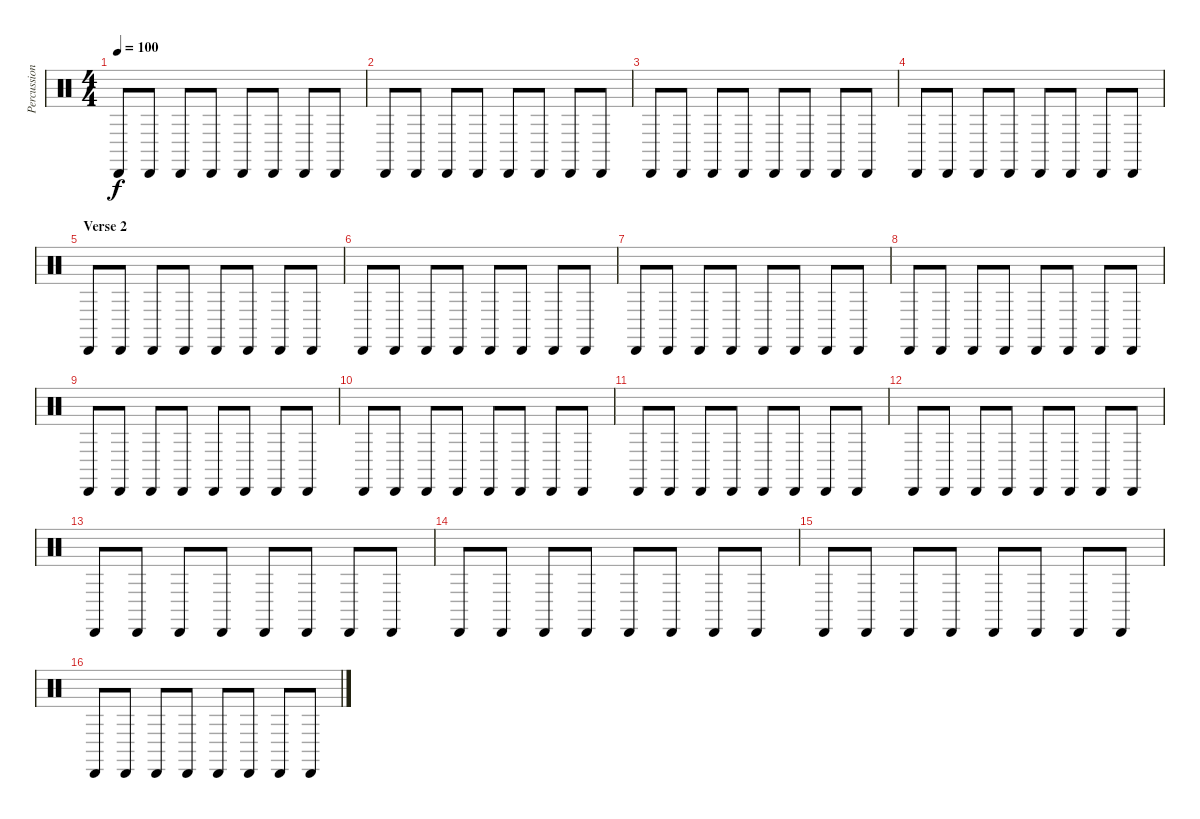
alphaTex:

\track ("Percussion" "Percussion") {instrument percussion}
\staff {score}
\articulation defaults
\ts (4 4)
\tempo 100
\clef neutral
\ks c "Cabasa (hit)".8{dy f} "Cabasa (hit)".8 "Cabasa (hit)".8 "Cabasa (hit)".8 "Cabasa (hit)".8 "Cabasa (hit)".8 "Cabasa (hit)".8 "Cabasa (hit)".8
|
"Cabasa (hit)".8 "Cabasa (hit)".8 "Cabasa (hit)".8 "Cabasa (hit)".8 "Cabasa (hit)".8 "Cabasa (hit)".8 "Cabasa (hit)".8 "Cabasa (hit)".8 |
"Cabasa (hit)".8 "Cabasa (hit)".8 "Cabasa (hit)".8 "Cabasa (hit)".8 "Cabasa (hit)".8 "Cabasa (hit)".8 "Cabasa (hit)".8 "Cabasa (hit)".8 |
"Cabasa (hit)".8 "Cabasa (hit)".8 "Cabasa (hit)".8 "Cabasa (hit)".8 "Cabasa (hit)".8 "Cabasa (hit)".8 "Cabasa (hit)".8 "Cabasa (hit)".8 |
\section ("" "Verse 2")
"Cabasa (hit)".8 "Cabasa (hit)".8 "Cabasa (hit)".8 "Cabasa (hit)".8 "Cabasa (hit)".8 "Cabasa (hit)".8 "Cabasa (hit)".8 "Cabasa (hit)".8 |
"Cabasa (hit)".8 "Cabasa (hit)".8 "Cabasa (hit)".8 "Cabasa (hit)".8 "Cabasa (hit)".8 "Cabasa (hit)".8 "Cabasa (hit)".8 "Cabasa (hit)".8 |
"Cabasa (hit)".8 "Cabasa (hit)".8 "Cabasa (hit)".8 "Cabasa (hit)".8 "Cabasa (hit)".8 "Cabasa (hit)".8 "Cabasa (hit)".8 "Cabasa (hit)".8 |
"Cabasa (hit)".8 "Cabasa (hit)".8 "Cabasa (hit)".8 "Cabasa (hit)".8 "Cabasa (hit)".8 "Cabasa (hit)".8 "Cabasa (hit)".8 "Cabasa (hit)".8 |
"Cabasa (hit)".8 "Cabasa (hit)".8 "Cabasa (hit)".8 "Cabasa (hit)".8 "Cabasa (hit)".8 "Cabasa (hit)".8 "Cabasa (hit)".8 "Cabasa (hit)".8 |
"Cabasa (hit)".8 "Cabasa (hit)".8 "Cabasa (hit)".8 "Cabasa (hit)".8 "Cabasa (hit)".8 "Cabasa (hit)".8 "Cabasa (hit)".8 "Cabasa (hit)".8 |
"Cabasa (hit)".8 "Cabasa (hit)".8 "Cabasa (hit)".8 "Cabasa (hit)".8 "Cabasa (hit)".8 "Cabasa (hit)".8 "Cabasa (hit)".8 "Cabasa (hit)".8 |
"Cabasa (hit)".8 "Cabasa (hit)".8 "Cabasa (hit)".8 "Cabasa (hit)".8 "Cabasa (hit)".8 "Cabasa (hit)".8 "Cabasa (hit)".8 "Cabasa (hit)".8 |
"Cabasa (hit)".8 "Cabasa (hit)".8 "Cabasa (hit)".8 "Cabasa (hit)".8 "Cabasa (hit)".8 "Cabasa (hit)".8 "Cabasa (hit)".8 "Cabasa (hit)".8 |
"Cabasa (hit)".8 "Cabasa (hit)".8 "Cabasa (hit)".8 "Cabasa (hit)".8 "Cabasa (hit)".8 "Cabasa (hit)".8 "Cabasa (hit)".8 "Cabasa (hit)".8 |
"Cabasa (hit)".8 "Cabasa (hit)".8 "Cabasa (hit)".8 "Cabasa (hit)".8 "Cabasa (hit)".8 "Cabasa (hit)".8 "Cabasa (hit)".8 "Cabasa (hit)".8 |
"Cabasa (hit)".8 "Cabasa (hit)".8 "Cabasa (hit)".8 "Cabasa (hit)".8 "Cabasa (hit)".8 "Cabasa (hit)".8 "Cabasa (hit)".8 "Cabasa (hit)".8
